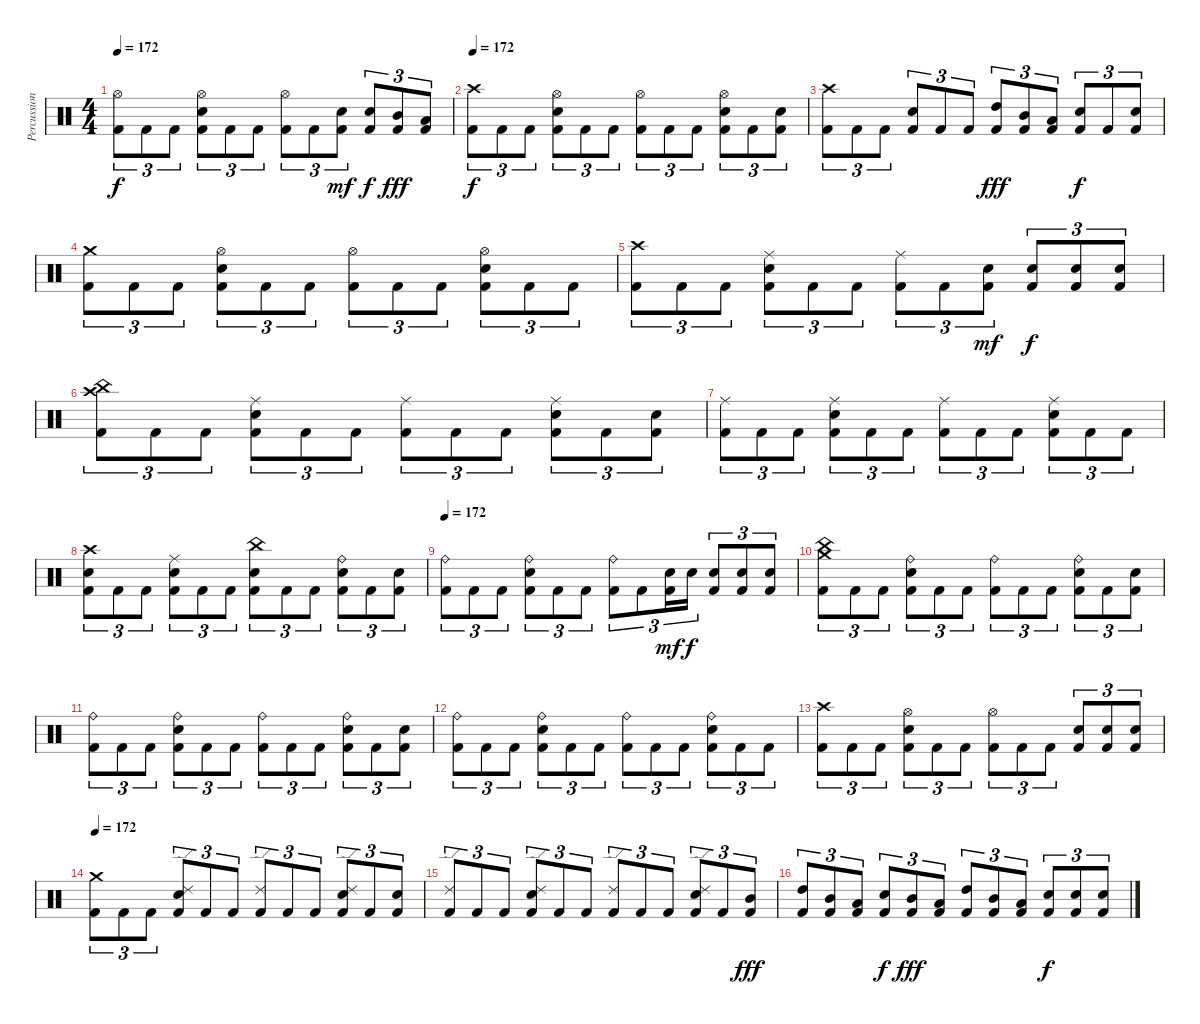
\track ("Percussion" "Percussion") {instrument percussion}
\staff {score}
\articulation defaults
\ts (4 4)
\tempo 172
\clef neutral
\ks c
("Hi-Hat (open)" "Kick (hit) 2").8{tu (3 2) dy f} "Kick (hit) 2".8{tu (3 2)} "Kick (hit) 2".8{tu (3 2)} ("Hi-Hat (open)" "Snare (hit) 2" "Kick (hit) 2").8{tu (3 2)} "Kick (hit) 2".8{tu (3 2)} "Kick (hit) 2".8{tu (3 2)} ("Hi-Hat (open)" "Kick (hit) 2").8{tu (3 2)} "Kick (hit) 2".8{tu (3 2)} ("Snare (hit) 2" "Kick (hit) 2").8{tu (3 2) dy mf} ("Snare (hit) 2" "Kick (hit) 2").8{tu (3 2) dy f} ("Mid Tom (hit)" "Kick (hit) 2").8{tu (3 2) dy fff} ("Low Tom (hit)" "Kick (hit) 2").8{tu (3 2)} |
\section ("" "")
\tempo 172
("Crash high (hit)" "Kick (hit) 2").8{tu (3 2) dy f} "Kick (hit) 2".8{tu (3 2)} "Kick (hit) 2".8{tu (3 2)} ("Hi-Hat (open)" "Snare (hit) 2" "Kick (hit) 2").8{tu (3 2)} "Kick (hit) 2".8{tu (3 2)} "Kick (hit) 2".8{tu (3 2)} ("Hi-Hat (open)" "Kick (hit) 2").8{tu (3 2)} "Kick (hit) 2".8{tu (3 2)} "Kick (hit) 2".8{tu (3 2)} ("Hi-Hat (open)" "Snare (hit) 2" "Kick (hit) 2").8{tu (3 2)} "Kick (hit) 2".8{tu (3 2)} ("Snare (hit) 2" "Kick (hit) 2").8{tu (3 2)} |
("Crash high (hit)" "Kick (hit) 2").8{tu (3 2)} "Kick (hit) 2".8{tu (3 2)} "Kick (hit) 2".8{tu (3 2)} ("Snare (hit) 2" "Kick (hit) 2").8{tu (3 2)} "Kick (hit) 2".8{tu (3 2)} "Kick (hit) 2".8{tu (3 2)} ("High Tom (hit)" "Kick (hit) 2").8{tu (3 2) dy fff} ("Mid Tom (hit)" "Kick (hit) 2").8{tu (3 2)} ("Low Tom (hit)" "Kick (hit) 2").8{tu (3 2)} ("Snare (hit) 2" "Kick (hit) 2").8{tu (3 2) dy f} "Kick (hit) 2".8{tu (3 2)} ("Snare (hit) 2" "Kick (hit) 2").8{tu (3 2)} |
("Crash medium (hit)" "Kick (hit) 2").8{tu (3 2)} "Kick (hit) 2".8{tu (3 2)} "Kick (hit) 2".8{tu (3 2)} ("Hi-Hat (open)" "Snare (hit) 2" "Kick (hit) 2").8{tu (3 2)} "Kick (hit) 2".8{tu (3 2)} "Kick (hit) 2".8{tu (3 2)} ("Hi-Hat (open)" "Kick (hit) 2").8{tu (3 2)} "Kick (hit) 2".8{tu (3 2)} "Kick (hit) 2".8{tu (3 2)} ("Hi-Hat (open)" "Snare (hit) 2" "Kick (hit) 2").8{tu (3 2)} "Kick (hit) 2".8{tu (3 2)} "Kick (hit) 2".8{tu (3 2)} |
("Crash high (hit)" "Kick (hit) 2").8{tu (3 2)} "Kick (hit) 2".8{tu (3 2)} "Kick (hit) 2".8{tu (3 2)} ("Ride (middle)" "Snare (hit) 2" "Kick (hit) 2").8{tu (3 2)} "Kick (hit) 2".8{tu (3 2)} "Kick (hit) 2".8{tu (3 2)} ("Ride (middle)" "Kick (hit) 2").8{tu (3 2)} "Kick (hit) 2".8{tu (3 2)} ("Snare (hit) 2" "Kick (hit) 2").8{tu (3 2) dy mf} ("Snare (hit) 2" "Kick (hit) 2").8{tu (3 2) dy f} ("Snare (hit) 2" "Kick (hit) 2").8{tu (3 2)} ("Snare (hit) 2" "Kick (hit) 2").8{tu (3 2)} |
("Crash high (hit)" "China (hit)" "Kick (hit) 2").8{tu (3 2)} "Kick (hit) 2".8{tu (3 2)} "Kick (hit) 2".8{tu (3 2)} ("Ride (middle)" "Snare (hit) 2" "Kick (hit) 2").8{tu (3 2)} "Kick (hit) 2".8{tu (3 2)} "Kick (hit) 2".8{tu (3 2)} ("Ride (middle)" "Kick (hit) 2").8{tu (3 2)} "Kick (hit) 2".8{tu (3 2)} "Kick (hit) 2".8{tu (3 2)} ("Ride (middle)" "Snare (hit) 2" "Kick (hit) 2").8{tu (3 2)} "Kick (hit) 2".8{tu (3 2)} ("Snare (hit) 2" "Kick (hit) 2").8{tu (3 2)} |
("Ride (middle)" "Kick (hit) 2").8{tu (3 2)} "Kick (hit) 2".8{tu (3 2)} "Kick (hit) 2".8{tu (3 2)} ("Ride (middle)" "Snare (hit) 2" "Kick (hit) 2").8{tu (3 2)} "Kick (hit) 2".8{tu (3 2)} "Kick (hit) 2".8{tu (3 2)} ("Ride (middle)" "Kick (hit) 2").8{tu (3 2)} "Kick (hit) 2".8{tu (3 2)} "Kick (hit) 2".8{tu (3 2)} ("Ride (middle)" "Snare (hit) 2" "Kick (hit) 2").8{tu (3 2)} "Kick (hit) 2".8{tu (3 2)} "Kick (hit) 2".8{tu (3 2)} |
("Crash high (hit)" "Snare (hit) 2" "Kick (hit) 2").8{tu (3 2)} "Kick (hit) 2".8{tu (3 2)} "Kick (hit) 2".8{tu (3 2)} ("Ride (middle)" "Snare (hit) 2" "Kick (hit) 2").8{tu (3 2)} "Kick (hit) 2".8{tu (3 2)} "Kick (hit) 2".8{tu (3 2)} ("China (hit)" "Snare (hit) 2" "Kick (hit) 2").8{tu (3 2)} "Kick (hit) 2".8{tu (3 2)} "Kick (hit) 2".8{tu (3 2)} ("Ride (bell)" "Snare (hit) 2" "Kick (hit) 2").8{tu (3 2)} "Kick (hit) 2".8{tu (3 2)} ("Snare (hit) 2" "Kick (hit) 2").8{tu (3 2)} |
\section ("" "")
\tempo 172
("Ride (bell)" "Kick (hit) 2").8{tu (3 2)} "Kick (hit) 2".8{tu (3 2)} "Kick (hit) 2".8{tu (3 2)} ("Ride (bell)" "Snare (hit) 2" "Kick (hit) 2").8{tu (3 2)} "Kick (hit) 2".8{tu (3 2)} "Kick (hit) 2".8{tu (3 2)} ("Ride (bell)" "Kick (hit) 2").8{tu (3 2)} "Kick (hit) 2".8{tu (3 2)} ("Snare (hit) 2" "Kick (hit) 2").16{tu (3 2) dy mf} "Snare (hit) 2".16{tu (3 2) dy f} ("Snare (hit) 2" "Kick (hit) 2").8{tu (3 2)} ("Snare (hit) 2" "Kick (hit) 2").8{tu (3 2)} ("Snare (hit) 2" "Kick (hit) 2").8{tu (3 2)} |
("Crash medium (hit)" "China (hit)" "Kick (hit) 2").8{tu (3 2)} "Kick (hit) 2".8{tu (3 2)} "Kick (hit) 2".8{tu (3 2)} ("Ride (bell)" "Snare (hit) 2" "Kick (hit) 2").8{tu (3 2)} "Kick (hit) 2".8{tu (3 2)} "Kick (hit) 2".8{tu (3 2)} ("Ride (bell)" "Kick (hit) 2").8{tu (3 2)} "Kick (hit) 2".8{tu (3 2)} "Kick (hit) 2".8{tu (3 2)} ("Ride (bell)" "Snare (hit) 2" "Kick (hit) 2").8{tu (3 2)} "Kick (hit) 2".8{tu (3 2)} ("Snare (hit) 2" "Kick (hit) 2").8{tu (3 2)} |
("Ride (bell)" "Kick (hit) 2").8{tu (3 2)} "Kick (hit) 2".8{tu (3 2)} "Kick (hit) 2".8{tu (3 2)} ("Ride (bell)" "Snare (hit) 2" "Kick (hit) 2").8{tu (3 2)} "Kick (hit) 2".8{tu (3 2)} "Kick (hit) 2".8{tu (3 2)} ("Ride (bell)" "Kick (hit) 2").8{tu (3 2)} "Kick (hit) 2".8{tu (3 2)} "Kick (hit) 2".8{tu (3 2)} ("Ride (bell)" "Snare (hit) 2" "Kick (hit) 2").8{tu (3 2)} "Kick (hit) 2".8{tu (3 2)} ("Snare (hit) 2" "Kick (hit) 2").8{tu (3 2)} |
("Ride (bell)" "Kick (hit) 2").8{tu (3 2)} "Kick (hit) 2".8{tu (3 2)} "Kick (hit) 2".8{tu (3 2)} ("Ride (bell)" "Snare (hit) 2" "Kick (hit) 2").8{tu (3 2)} "Kick (hit) 2".8{tu (3 2)} "Kick (hit) 2".8{tu (3 2)} ("Ride (bell)" "Kick (hit) 2").8{tu (3 2)} "Kick (hit) 2".8{tu (3 2)} "Kick (hit) 2".8{tu (3 2)} ("Ride (bell)" "Snare (hit) 2" "Kick (hit) 2").8{tu (3 2)} "Kick (hit) 2".8{tu (3 2)} "Kick (hit) 2".8{tu (3 2)} |
("Crash high (hit)" "Kick (hit) 2").8{tu (3 2)} "Kick (hit) 2".8{tu (3 2)} "Kick (hit) 2".8{tu (3 2)} ("Hi-Hat (open)" "Snare (hit) 2" "Kick (hit) 2").8{tu (3 2)} "Kick (hit) 2".8{tu (3 2)} "Kick (hit) 2".8{tu (3 2)} ("Hi-Hat (open)" "Kick (hit) 2").8{tu (3 2)} "Kick (hit) 2".8{tu (3 2)} "Kick (hit) 2".8{tu (3 2)} ("Snare (hit) 2" "Kick (hit) 2").8{tu (3 2)} ("Snare (hit) 2" "Kick (hit) 2").8{tu (3 2)} ("Snare (hit) 2" "Kick (hit) 2").8{tu (3 2)} |
\section ("" "")
\tempo 172
("Crash medium (hit)" "Kick (hit) 2").8{tu (3 2)} "Kick (hit) 2".8{tu (3 2)} "Kick (hit) 2".8{tu (3 2)} ("Ride (edge) 2" "Snare (hit) 2" "Kick (hit) 2").8{tu (3 2)} "Kick (hit) 2".8{tu (3 2)} "Kick (hit) 2".8{tu (3 2)} ("Ride (edge) 2" "Kick (hit) 2").8{tu (3 2)} "Kick (hit) 2".8{tu (3 2)} "Kick (hit) 2".8{tu (3 2)} ("Ride (edge) 2" "Snare (hit) 2" "Kick (hit) 2").8{tu (3 2)} "Kick (hit) 2".8{tu (3 2)} ("Snare (hit) 2" "Kick (hit) 2").8{tu (3 2)} |
("Ride (edge) 2" "Kick (hit) 2").8{tu (3 2)} "Kick (hit) 2".8{tu (3 2)} "Kick (hit) 2".8{tu (3 2)} ("Ride (edge) 2" "Snare (hit) 2" "Kick (hit) 2").8{tu (3 2)} "Kick (hit) 2".8{tu (3 2)} "Kick (hit) 2".8{tu (3 2)} ("Ride (edge) 2" "Kick (hit) 2").8{tu (3 2)} "Kick (hit) 2".8{tu (3 2)} "Kick (hit) 2".8{tu (3 2)} ("Ride (edge) 2" "Snare (hit) 2" "Kick (hit) 2").8{tu (3 2)} "Kick (hit) 2".8{tu (3 2)} ("Mid Tom (hit)" "Kick (hit) 2").8{tu (3 2) dy fff} |
("High Tom (hit)" "Kick (hit) 2").8{tu (3 2)} ("Mid Tom (hit)" "Kick (hit) 2").8{tu (3 2)} ("Low Tom (hit)" "Kick (hit) 2").8{tu (3 2)} ("Snare (hit) 2" "Kick (hit) 2").8{tu (3 2) dy f} ("Mid Tom (hit)" "Kick (hit) 2").8{tu (3 2) dy fff} ("Low Tom (hit)" "Kick (hit) 2").8{tu (3 2)} ("High Tom (hit)" "Kick (hit) 2").8{tu (3 2)} ("Mid Tom (hit)" "Kick (hit) 2").8{tu (3 2)} ("Low Tom (hit)" "Kick (hit) 2").8{tu (3 2)} ("Snare (hit) 2" "Kick (hit) 2").8{tu (3 2) dy f} ("Snare (hit) 2" "Kick (hit) 2").8{tu (3 2)} ("Snare (hit) 2" "Kick (hit) 2").8{tu (3 2)}
